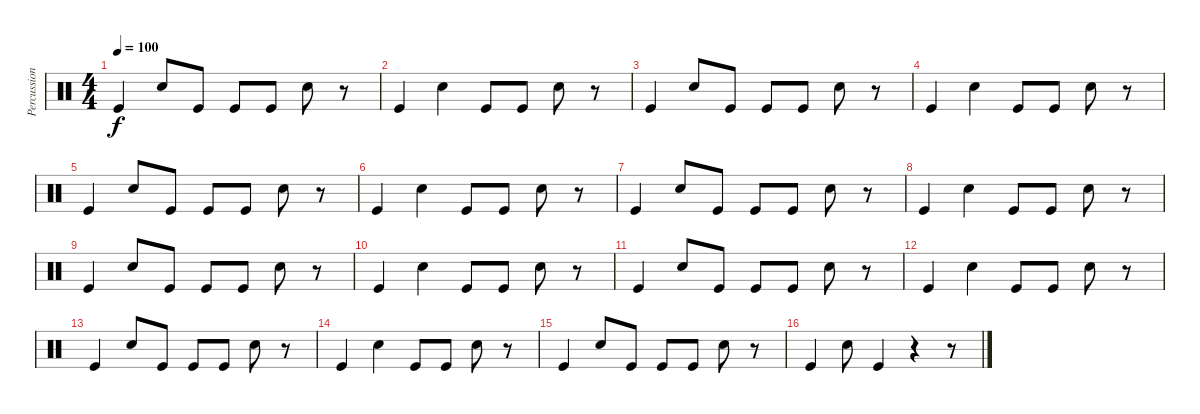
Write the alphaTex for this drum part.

\track ("Percussion" "Percussion") {instrument percussion}
\staff {score}
\articulation defaults
\ts (4 4)
\tempo 100
\clef neutral
\ks c "Kick (hit)".4{dy f} "Snare (hit) 2".8 "Kick (hit)".8 "Kick (hit)".8 "Kick (hit)".8 "Snare (hit) 2".8
r.8 |
"Kick (hit)".4 "Snare (hit) 2".4 "Kick (hit)".8 "Kick (hit)".8 "Snare (hit) 2".8 r.8 |
"Kick (hit)".4 "Snare (hit) 2".8 "Kick (hit)".8 "Kick (hit)".8 "Kick (hit)".8 "Snare (hit) 2".8 r.8 |
"Kick (hit)".4 "Snare (hit) 2".4 "Kick (hit)".8 "Kick (hit)".8 "Snare (hit) 2".8 r.8 |
"Kick (hit)".4 "Snare (hit) 2".8 "Kick (hit)".8 "Kick (hit)".8 "Kick (hit)".8 "Snare (hit) 2".8 r.8 |
"Kick (hit)".4 "Snare (hit) 2".4 "Kick (hit)".8 "Kick (hit)".8 "Snare (hit) 2".8 r.8 |
"Kick (hit)".4 "Snare (hit) 2".8 "Kick (hit)".8 "Kick (hit)".8 "Kick (hit)".8 "Snare (hit) 2".8 r.8 |
"Kick (hit)".4 "Snare (hit) 2".4 "Kick (hit)".8 "Kick (hit)".8 "Snare (hit) 2".8 r.8 |
"Kick (hit)".4 "Snare (hit) 2".8 "Kick (hit)".8 "Kick (hit)".8 "Kick (hit)".8 "Snare (hit) 2".8 r.8 |
"Kick (hit)".4 "Snare (hit) 2".4 "Kick (hit)".8 "Kick (hit)".8 "Snare (hit) 2".8 r.8 |
"Kick (hit)".4 "Snare (hit) 2".8 "Kick (hit)".8 "Kick (hit)".8 "Kick (hit)".8 "Snare (hit) 2".8 r.8 |
"Kick (hit)".4 "Snare (hit) 2".4 "Kick (hit)".8 "Kick (hit)".8 "Snare (hit) 2".8 r.8 |
"Kick (hit)".4 "Snare (hit) 2".8 "Kick (hit)".8 "Kick (hit)".8 "Kick (hit)".8 "Snare (hit) 2".8 r.8 |
"Kick (hit)".4 "Snare (hit) 2".4 "Kick (hit)".8 "Kick (hit)".8 "Snare (hit) 2".8 r.8 |
"Kick (hit)".4 "Snare (hit) 2".8 "Kick (hit)".8 "Kick (hit)".8 "Kick (hit)".8 "Snare (hit) 2".8 r.8 |
"Kick (hit)".4 "Snare (hit) 2".8 "Kick (hit)".4 r.4 r.8
